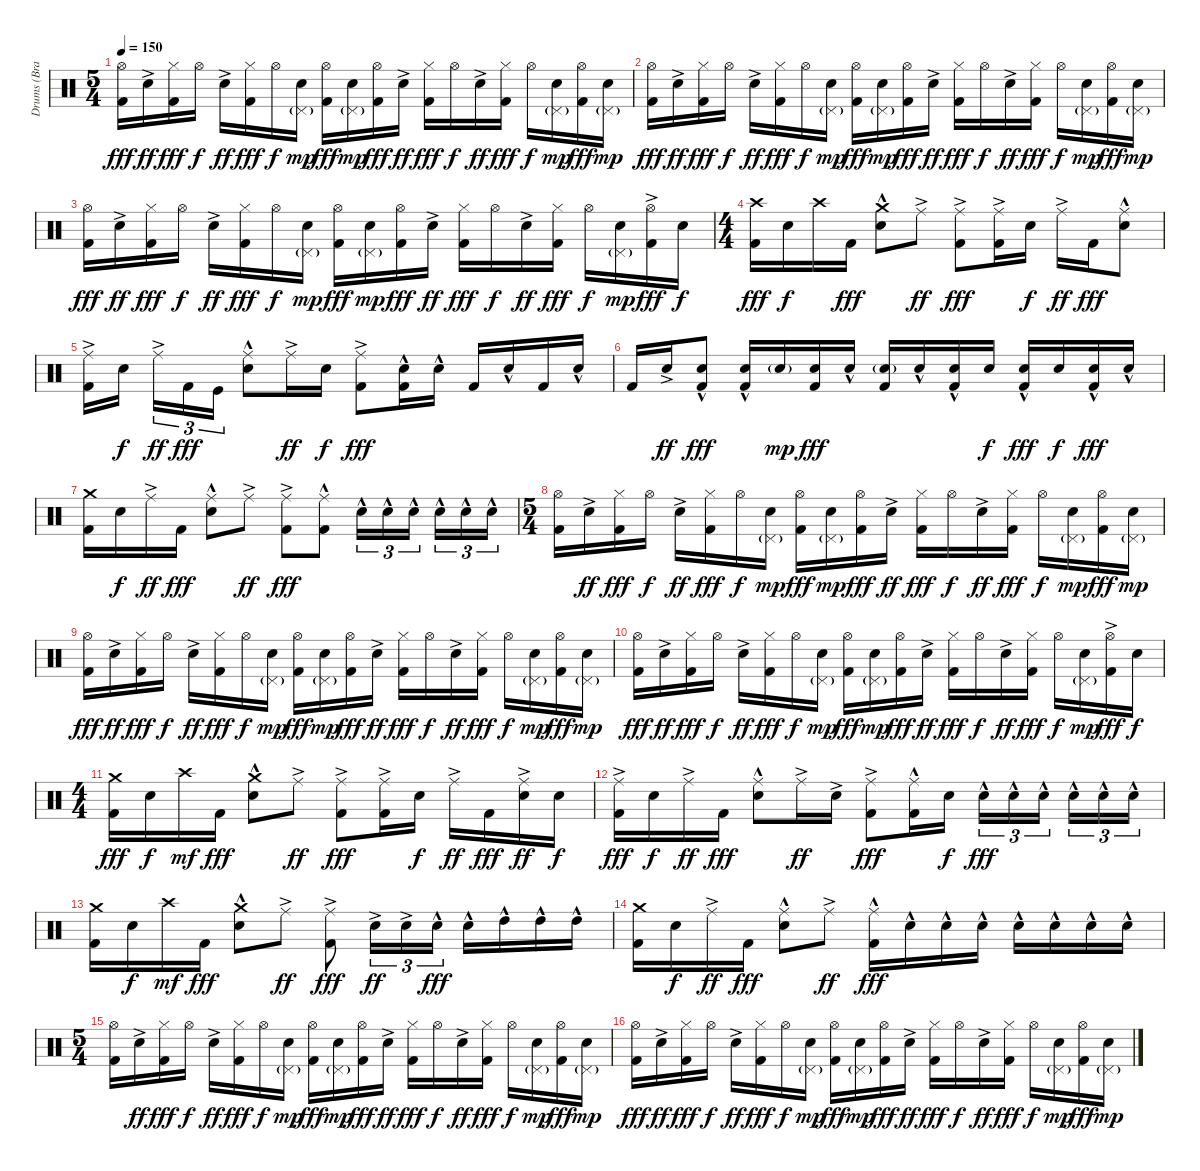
\track ("Drums (Brann Dailor)" "Drums (Bra") {instrument percussion}
\staff {score}
\articulation defaults
\ts (5 4)
\tempo 150
\clef neutral
\ks c
("Hi-Hat (open)" "Kick (hit) 2").16{dy fff} "Electric Snare (hit)"{ac}.16{dy ff} ("Hi-Hat (closed)" "Kick (hit) 2").16{dy fff} "Hi-Hat (open)".16{dy f} "Electric Snare (hit)"{ac}.16{dy ff} ("Hi-Hat (closed)" "Kick (hit) 2").16{dy fff} "Hi-Hat (open)".16{dy f} ("Pedal Hi-Hat (hit)"{g} "Electric Snare (hit)").16{dy mp} ("Hi-Hat (open)" "Kick (hit) 2").16{dy fff} ("Pedal Hi-Hat (hit)"{g} "Electric Snare (hit)").16{dy mp} ("Hi-Hat (open)" "Kick (hit) 2").16{dy fff} "Electric Snare (hit)"{ac}.16{dy ff} ("Hi-Hat (closed)" "Kick (hit) 2").16{dy fff} "Hi-Hat (open)".16{dy f} "Electric Snare (hit)"{ac}.16{dy ff} ("Hi-Hat (closed)" "Kick (hit) 2").16{dy fff} "Hi-Hat (open)".16{dy f} ("Pedal Hi-Hat (hit)"{g} "Electric Snare (hit)").16{dy mp} ("Hi-Hat (open)" "Kick (hit) 2").16{dy fff} ("Pedal Hi-Hat (hit)"{g} "Electric Snare (hit)").16{dy mp} |
("Hi-Hat (open)" "Kick (hit) 2").16{dy fff} "Electric Snare (hit)"{ac}.16{dy ff} ("Hi-Hat (closed)" "Kick (hit) 2").16{dy fff} "Hi-Hat (open)".16{dy f} "Electric Snare (hit)"{ac}.16{dy ff} ("Hi-Hat (closed)" "Kick (hit) 2").16{dy fff} "Hi-Hat (open)".16{dy f} ("Pedal Hi-Hat (hit)"{g} "Electric Snare (hit)").16{dy mp} ("Hi-Hat (open)" "Kick (hit) 2").16{dy fff} ("Pedal Hi-Hat (hit)"{g} "Electric Snare (hit)").16{dy mp} ("Hi-Hat (open)" "Kick (hit) 2").16{dy fff} "Electric Snare (hit)"{ac}.16{dy ff} ("Hi-Hat (closed)" "Kick (hit) 2").16{dy fff} "Hi-Hat (open)".16{dy f} "Electric Snare (hit)"{ac}.16{dy ff} ("Hi-Hat (closed)" "Kick (hit) 2").16{dy fff} "Hi-Hat (open)".16{dy f} ("Pedal Hi-Hat (hit)"{g} "Electric Snare (hit)").16{dy mp} ("Hi-Hat (open)" "Kick (hit) 2").16{dy fff} ("Pedal Hi-Hat (hit)"{g} "Electric Snare (hit)").16{dy mp} |
("Hi-Hat (open)" "Kick (hit) 2").16{dy fff} "Electric Snare (hit)"{ac}.16{dy ff} ("Hi-Hat (closed)" "Kick (hit) 2").16{dy fff} "Hi-Hat (open)".16{dy f} "Electric Snare (hit)"{ac}.16{dy ff} ("Hi-Hat (closed)" "Kick (hit) 2").16{dy fff} "Hi-Hat (open)".16{dy f} ("Pedal Hi-Hat (hit)"{g} "Electric Snare (hit)").16{dy mp} ("Hi-Hat (open)" "Kick (hit) 2").16{dy fff} ("Pedal Hi-Hat (hit)"{g} "Electric Snare (hit)").16{dy mp} ("Hi-Hat (open)" "Kick (hit) 2").16{dy fff} "Electric Snare (hit)"{ac}.16{dy ff} ("Hi-Hat (closed)" "Kick (hit) 2").16{dy fff} "Hi-Hat (open)".16{dy f} "Electric Snare (hit)"{ac}.16{dy ff} ("Hi-Hat (closed)" "Kick (hit) 2").16{dy fff} "Hi-Hat (open)".16{dy f} ("Pedal Hi-Hat (hit)"{g} "Electric Snare (hit)").16{dy mp} ("Hi-Hat (open)"{ac} "Kick (hit) 2").16{dy fff} "Electric Snare (hit)".16{dy f} |
\ts (4 4)
("Crash high (hit)" "Kick (hit) 2").16{dy fff} "Electric Snare (hit)".16{dy f} "Crash high (hit)".16 "Kick (hit) 2".16{dy fff} ("Crash medium (hit)" "Electric Snare (hit)"{hac}).8 "Ride (middle)"{ac}.8{dy ff} ("Ride (middle)"{ac} "Kick (hit) 2").8{dy fff} ("Ride (middle)"{ac} "Kick (hit) 2").16 "Electric Snare (hit)".16{dy f} "Ride (middle)"{ac}.16{dy ff} "Kick (hit) 2".16{dy fff} ("Ride (middle)"{hac} "Electric Snare (hit)"{hac}).8 |
("Ride (middle)"{ac} "Kick (hit) 2").16 "Electric Snare (hit)".16{dy f beam splitsecondary} "Ride (middle)"{ac}.16{tu (3 2) dy ff} "Kick (hit) 2".16{tu (3 2) dy fff} "Kick (hit)".16{tu (3 2)} ("Ride (middle)"{hac} "Electric Snare (hit)"{hac}).8 "Ride (middle)"{ac}.16{dy ff} "Electric Snare (hit)".16{dy f} ("Ride (middle)"{ac} "Kick (hit) 2").8{dy fff} ("Electric Snare (hit)"{hac} "Kick (hit) 2").16 "Electric Snare (hit)"{hac}.16 "Kick (hit) 2".16 "Electric Snare (hit)"{hac}.16 "Kick (hit) 2".16 "Electric Snare (hit)"{hac}.16 |
"Kick (hit) 2".16 "Electric Snare (hit)"{ac}.16{dy ff} ("Electric Snare (hit)"{hac} "Kick (hit) 2").8{dy fff} ("Electric Snare (hit)"{hac} "Kick (hit) 2").16 "Electric Snare (hit)"{g}.16{dy mp} ("Electric Snare (hit)" "Kick (hit) 2").16{dy fff} "Electric Snare (hit)"{hac}.16 ("Electric Snare (hit)"{g} "Kick (hit) 2").16 "Electric Snare (hit)"{hac}.16 ("Electric Snare (hit)"{hac} "Kick (hit) 2").16 "Electric Snare (hit)".16{dy f} ("Electric Snare (hit)"{hac} "Kick (hit) 2").16{dy fff} "Electric Snare (hit)".16{dy f} ("Electric Snare (hit)"{hac} "Kick (hit) 2").16{dy fff} "Electric Snare (hit)"{hac}.16 |
("Crash medium (hit)" "Kick (hit) 2").16 "Electric Snare (hit)".16{dy f} "Ride (middle)"{ac}.16{dy ff} "Kick (hit) 2".16{dy fff} ("Ride (middle)"{hac} "Electric Snare (hit)"{hac}).8 "Ride (middle)"{ac}.8{dy ff} ("Ride (middle)"{ac} "Kick (hit) 2").8{dy fff} ("Ride (middle)"{hac} "Kick (hit) 2").8 "Electric Snare (hit)"{hac}.16{tu (3 2)} "Electric Snare (hit)"{hac}.16{tu (3 2)} "Electric Snare (hit)"{hac}.16{tu (3 2) beam splitsecondary} "Electric Snare (hit)"{hac}.16{tu (3 2)} "Electric Snare (hit)"{hac}.16{tu (3 2)} "Electric Snare (hit)"{hac}.16{tu (3 2)} |
\ts (5 4)
("Hi-Hat (open)" "Kick (hit) 2").16 "Electric Snare (hit)"{ac}.16{dy ff} ("Hi-Hat (closed)" "Kick (hit) 2").16{dy fff} "Hi-Hat (open)".16{dy f} "Electric Snare (hit)"{ac}.16{dy ff} ("Hi-Hat (closed)" "Kick (hit) 2").16{dy fff} "Hi-Hat (open)".16{dy f} ("Pedal Hi-Hat (hit)"{g} "Electric Snare (hit)").16{dy mp} ("Hi-Hat (open)" "Kick (hit) 2").16{dy fff} ("Pedal Hi-Hat (hit)"{g} "Electric Snare (hit)").16{dy mp} ("Hi-Hat (open)" "Kick (hit) 2").16{dy fff} "Electric Snare (hit)"{ac}.16{dy ff} ("Hi-Hat (closed)" "Kick (hit) 2").16{dy fff} "Hi-Hat (open)".16{dy f} "Electric Snare (hit)"{ac}.16{dy ff} ("Hi-Hat (closed)" "Kick (hit) 2").16{dy fff} "Hi-Hat (open)".16{dy f} ("Pedal Hi-Hat (hit)"{g} "Electric Snare (hit)").16{dy mp} ("Hi-Hat (open)" "Kick (hit) 2").16{dy fff} ("Pedal Hi-Hat (hit)"{g} "Electric Snare (hit)").16{dy mp} |
("Hi-Hat (open)" "Kick (hit) 2").16{dy fff} "Electric Snare (hit)"{ac}.16{dy ff} ("Hi-Hat (closed)" "Kick (hit) 2").16{dy fff} "Hi-Hat (open)".16{dy f} "Electric Snare (hit)"{ac}.16{dy ff} ("Hi-Hat (closed)" "Kick (hit) 2").16{dy fff} "Hi-Hat (open)".16{dy f} ("Pedal Hi-Hat (hit)"{g} "Electric Snare (hit)").16{dy mp} ("Hi-Hat (open)" "Kick (hit) 2").16{dy fff} ("Pedal Hi-Hat (hit)"{g} "Electric Snare (hit)").16{dy mp} ("Hi-Hat (open)" "Kick (hit) 2").16{dy fff} "Electric Snare (hit)"{ac}.16{dy ff} ("Hi-Hat (closed)" "Kick (hit) 2").16{dy fff} "Hi-Hat (open)".16{dy f} "Electric Snare (hit)"{ac}.16{dy ff} ("Hi-Hat (closed)" "Kick (hit) 2").16{dy fff} "Hi-Hat (open)".16{dy f} ("Pedal Hi-Hat (hit)"{g} "Electric Snare (hit)").16{dy mp} ("Hi-Hat (open)" "Kick (hit) 2").16{dy fff} ("Pedal Hi-Hat (hit)"{g} "Electric Snare (hit)").16{dy mp} |
("Hi-Hat (open)" "Kick (hit) 2").16{dy fff} "Electric Snare (hit)"{ac}.16{dy ff} ("Hi-Hat (closed)" "Kick (hit) 2").16{dy fff} "Hi-Hat (open)".16{dy f} "Electric Snare (hit)"{ac}.16{dy ff} ("Hi-Hat (closed)" "Kick (hit) 2").16{dy fff} "Hi-Hat (open)".16{dy f} ("Pedal Hi-Hat (hit)"{g} "Electric Snare (hit)").16{dy mp} ("Hi-Hat (open)" "Kick (hit) 2").16{dy fff} ("Pedal Hi-Hat (hit)"{g} "Electric Snare (hit)").16{dy mp} ("Hi-Hat (open)" "Kick (hit) 2").16{dy fff} "Electric Snare (hit)"{ac}.16{dy ff} ("Hi-Hat (closed)" "Kick (hit) 2").16{dy fff} "Hi-Hat (open)".16{dy f} "Electric Snare (hit)"{ac}.16{dy ff} ("Hi-Hat (closed)" "Kick (hit) 2").16{dy fff} "Hi-Hat (open)".16{dy f} ("Pedal Hi-Hat (hit)"{g} "Electric Snare (hit)").16{dy mp} ("Hi-Hat (open)"{ac} "Kick (hit) 2").16{dy fff} "Electric Snare (hit)".16{dy f} |
\ts (4 4)
("Crash medium (hit)" "Kick (hit) 2").16{dy fff} "Electric Snare (hit)".16{dy f} "Crash high (hit)".16{dy mf} "Kick (hit) 2".16{dy fff} ("Crash medium (hit)" "Electric Snare (hit)"{hac}).8 "Ride (middle)"{ac}.8{dy ff} ("Ride (middle)"{ac} "Kick (hit) 2").8{dy fff} ("Ride (middle)"{ac} "Kick (hit) 2").16 "Electric Snare (hit)".16{dy f} "Ride (middle)"{ac}.16{dy ff} "Kick (hit) 2".16{dy fff} ("Ride (middle)"{ac} "Electric Snare (hit)"{ac}).16{dy ff} "Electric Snare (hit)".16{dy f} |
("Ride (middle)"{ac} "Kick (hit) 2").16{dy fff} "Electric Snare (hit)".16{dy f} "Ride (middle)"{ac}.16{dy ff} "Kick (hit) 2".16{dy fff} ("Ride (middle)"{hac} "Electric Snare (hit)").8 "Ride (middle)"{ac}.16{dy ff} "Electric Snare (hit)"{ac}.16 ("Ride (middle)"{ac} "Kick (hit) 2").8{dy fff} ("Ride (middle)"{hac} "Kick (hit) 2").16 "Electric Snare (hit)".16{dy f} "Electric Snare (hit)"{hac}.16{tu (3 2) dy fff} "Electric Snare (hit)"{hac}.16{tu (3 2)} "Electric Snare (hit)"{hac}.16{tu (3 2) beam splitsecondary} "Electric Snare (hit)"{hac}.16{tu (3 2)} "Electric Snare (hit)"{hac}.16{tu (3 2)} "Electric Snare (hit)"{hac}.16{tu (3 2)} |
("Crash medium (hit)" "Kick (hit) 2").16 "Electric Snare (hit)".16{dy f} "Crash high (hit)".16{dy mf} "Kick (hit) 2".16{dy fff} ("Crash medium (hit)" "Electric Snare (hit)"{hac}).8 "Ride (middle)"{ac}.8{dy ff} ("Ride (middle)"{ac} "Kick (hit) 2").8{dy fff} "Electric Snare (hit)"{ac}.16{tu (3 2) dy ff} "Electric Snare (hit)"{ac}.16{tu (3 2)} "Electric Snare (hit)"{hac}.16{tu (3 2) dy fff} "Electric Snare (hit)"{hac}.16 "High Tom (hit)"{hac}.16 "High Tom (hit)"{hac}.16 "High Tom (hit)"{hac}.16 |
("Crash medium (hit)" "Kick (hit) 2").16 "Electric Snare (hit)".16{dy f} "Ride (middle)"{ac}.16{dy ff} "Kick (hit) 2".16{dy fff} ("Ride (middle)"{hac} "Electric Snare (hit)"{hac}).8 "Ride (middle)"{ac}.8{dy ff} ("Ride (middle)"{hac} "Kick (hit) 2").16{dy fff} "Electric Snare (hit)"{hac}.16 "Electric Snare (hit)"{hac}.16 "Electric Snare (hit)"{hac}.16 "Electric Snare (hit)"{hac}.16 "Electric Snare (hit)"{hac}.16 "Electric Snare (hit)"{hac}.16 "Electric Snare (hit)"{hac}.16 |
\ts (5 4)
("Hi-Hat (open)" "Kick (hit) 2").16 "Electric Snare (hit)"{ac}.16{dy ff} ("Hi-Hat (closed)" "Kick (hit) 2").16{dy fff} "Hi-Hat (open)".16{dy f} "Electric Snare (hit)"{ac}.16{dy ff} ("Hi-Hat (closed)" "Kick (hit) 2").16{dy fff} "Hi-Hat (open)".16{dy f} ("Pedal Hi-Hat (hit)"{g} "Electric Snare (hit)").16{dy mp} ("Hi-Hat (open)" "Kick (hit) 2").16{dy fff} ("Pedal Hi-Hat (hit)"{g} "Electric Snare (hit)").16{dy mp} ("Hi-Hat (open)" "Kick (hit) 2").16{dy fff} "Electric Snare (hit)"{ac}.16{dy ff} ("Hi-Hat (closed)" "Kick (hit) 2").16{dy fff} "Hi-Hat (open)".16{dy f} "Electric Snare (hit)"{ac}.16{dy ff} ("Hi-Hat (closed)" "Kick (hit) 2").16{dy fff} "Hi-Hat (open)".16{dy f} ("Pedal Hi-Hat (hit)"{g} "Electric Snare (hit)").16{dy mp} ("Hi-Hat (open)" "Kick (hit) 2").16{dy fff} ("Pedal Hi-Hat (hit)"{g} "Electric Snare (hit)").16{dy mp} |
("Hi-Hat (open)" "Kick (hit) 2").16{dy fff} "Electric Snare (hit)"{ac}.16{dy ff} ("Hi-Hat (closed)" "Kick (hit) 2").16{dy fff} "Hi-Hat (open)".16{dy f} "Electric Snare (hit)"{ac}.16{dy ff} ("Hi-Hat (closed)" "Kick (hit) 2").16{dy fff} "Hi-Hat (open)".16{dy f} ("Pedal Hi-Hat (hit)"{g} "Electric Snare (hit)").16{dy mp} ("Hi-Hat (open)" "Kick (hit) 2").16{dy fff} ("Pedal Hi-Hat (hit)"{g} "Electric Snare (hit)").16{dy mp} ("Hi-Hat (open)" "Kick (hit) 2").16{dy fff} "Electric Snare (hit)"{ac}.16{dy ff} ("Hi-Hat (closed)" "Kick (hit) 2").16{dy fff} "Hi-Hat (open)".16{dy f} "Electric Snare (hit)"{ac}.16{dy ff} ("Hi-Hat (closed)" "Kick (hit) 2").16{dy fff} "Hi-Hat (open)".16{dy f} ("Pedal Hi-Hat (hit)"{g} "Electric Snare (hit)").16{dy mp} ("Hi-Hat (open)" "Kick (hit) 2").16{dy fff} ("Pedal Hi-Hat (hit)"{g} "Electric Snare (hit)").16{dy mp}
